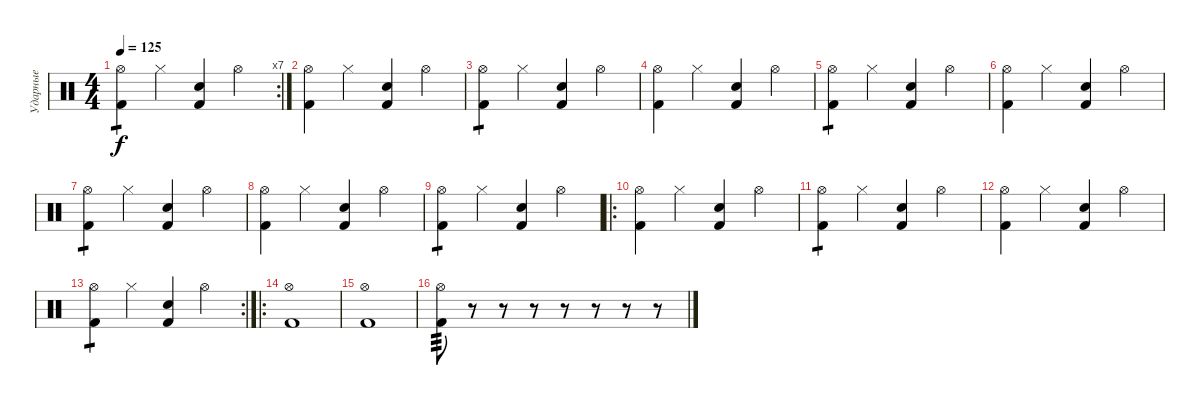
\track ("Ударные" "Ударные") {instrument percussion}
\staff {score}
\articulation defaults
\rc 7
\ts (4 4)
\tempo 125
\clef neutral
\ks c
("Hi-Hat (open)" "Kick (hit) 2").4{tp 1 dy f} "Hi-Hat (closed)".4 ("Electric Snare (hit)" "Kick (hit) 2").4 "Hi-Hat (open)".4 |
("Hi-Hat (open)" "Kick (hit) 2").4 "Hi-Hat (closed)".4 ("Electric Snare (hit)" "Kick (hit) 2").4 "Hi-Hat (open)".4 |
("Hi-Hat (open)" "Kick (hit) 2").4{tp 1} "Hi-Hat (closed)".4 ("Electric Snare (hit)" "Kick (hit) 2").4 "Hi-Hat (open)".4 |
("Hi-Hat (open)" "Kick (hit) 2").4 "Hi-Hat (closed)".4 ("Electric Snare (hit)" "Kick (hit) 2").4 "Hi-Hat (open)".4 |
("Hi-Hat (open)" "Kick (hit) 2").4{tp 1} "Hi-Hat (closed)".4 ("Electric Snare (hit)" "Kick (hit) 2").4 "Hi-Hat (open)".4 |
("Hi-Hat (open)" "Kick (hit) 2").4 "Hi-Hat (closed)".4 ("Electric Snare (hit)" "Kick (hit) 2").4 "Hi-Hat (open)".4 |
("Hi-Hat (open)" "Kick (hit) 2").4{tp 1} "Hi-Hat (closed)".4 ("Electric Snare (hit)" "Kick (hit) 2").4 "Hi-Hat (open)".4 |
("Hi-Hat (open)" "Kick (hit) 2").4 "Hi-Hat (closed)".4 ("Electric Snare (hit)" "Kick (hit) 2").4 "Hi-Hat (open)".4 |
("Hi-Hat (open)" "Kick (hit) 2").4{tp 1} "Hi-Hat (closed)".4 ("Electric Snare (hit)" "Kick (hit) 2").4 "Hi-Hat (open)".4 |
\ro
("Hi-Hat (open)" "Kick (hit) 2").4 "Hi-Hat (closed)".4 ("Electric Snare (hit)" "Kick (hit) 2").4 "Hi-Hat (open)".4 |
("Hi-Hat (open)" "Kick (hit) 2").4{tp 1} "Hi-Hat (closed)".4 ("Electric Snare (hit)" "Kick (hit) 2").4 "Hi-Hat (open)".4 |
("Hi-Hat (open)" "Kick (hit) 2").4 "Hi-Hat (closed)".4 ("Electric Snare (hit)" "Kick (hit) 2").4 "Hi-Hat (open)".4 |
\rc 2
("Hi-Hat (open)" "Kick (hit) 2").4{tp 1} "Hi-Hat (closed)".4 ("Electric Snare (hit)" "Kick (hit) 2").4 "Hi-Hat (open)".4 |
\ro
("Hi-Hat (open)" "Kick (hit) 2").1 |
("Hi-Hat (open)" "Kick (hit) 2").1 |
("Hi-Hat (open)" "Kick (hit) 2").8{tp 3} r.8 r.8 r.8 r.8 r.8 r.8 r.8
